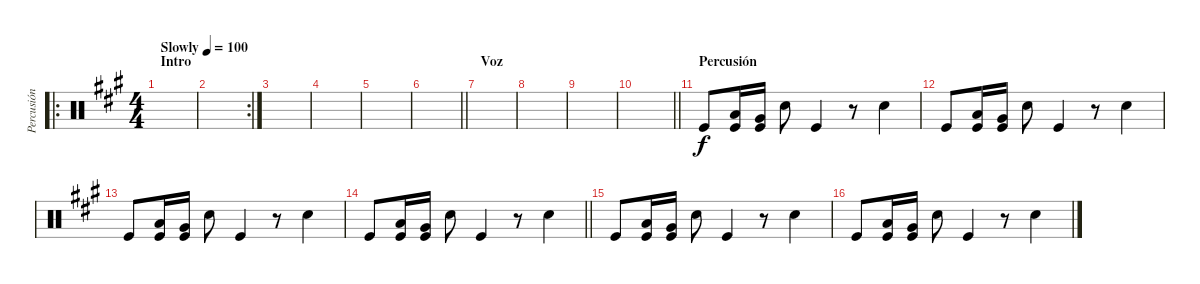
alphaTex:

\track ("Percusión" "Percusión") {instrument percussion}
\staff {score}
\articulation defaults
\ro
\ts (4 4)
\section ("" "Intro")
\tempo (100 "Slowly")
\clef neutral
\ks f#minor
|
\rc 2
|
|
|
|
\barLineRight lightlight
|
\section ("" "Voz")
|
|
|
\barLineRight lightlight
|
\section ("" "Percusión")
"Kick (hit)".8 ("Low Tom (hit)" "Kick (hit)").16 ("Very Low Tom (hit)" "Kick (hit)").16 "Electric Snare (hit)".8 "Kick (hit)".4 r.8 "Electric Snare (hit)".4 |
"Kick (hit)".8 ("Low Tom (hit)" "Kick (hit)").16 ("Very Low Tom (hit)" "Kick (hit)").16 "Electric Snare (hit)".8 "Kick (hit)".4 r.8 "Electric Snare (hit)".4 |
"Kick (hit)".8 ("Low Tom (hit)" "Kick (hit)").16 ("Very Low Tom (hit)" "Kick (hit)").16 "Electric Snare (hit)".8 "Kick (hit)".4 r.8 "Electric Snare (hit)".4 |
\barLineRight lightlight "Kick (hit)".8
("Low Tom (hit)" "Kick (hit)").16 ("Very Low Tom (hit)" "Kick (hit)").16 "Electric Snare (hit)".8 "Kick (hit)".4 r.8 "Electric Snare (hit)".4 |
"Kick (hit)".8 ("Low Tom (hit)" "Kick (hit)").16 ("Very Low Tom (hit)" "Kick (hit)").16 "Electric Snare (hit)".8 "Kick (hit)".4 r.8 "Electric Snare (hit)".4 |
"Kick (hit)".8 ("Low Tom (hit)" "Kick (hit)").16 ("Very Low Tom (hit)" "Kick (hit)").16 "Electric Snare (hit)".8 "Kick (hit)".4 r.8 "Electric Snare (hit)".4
